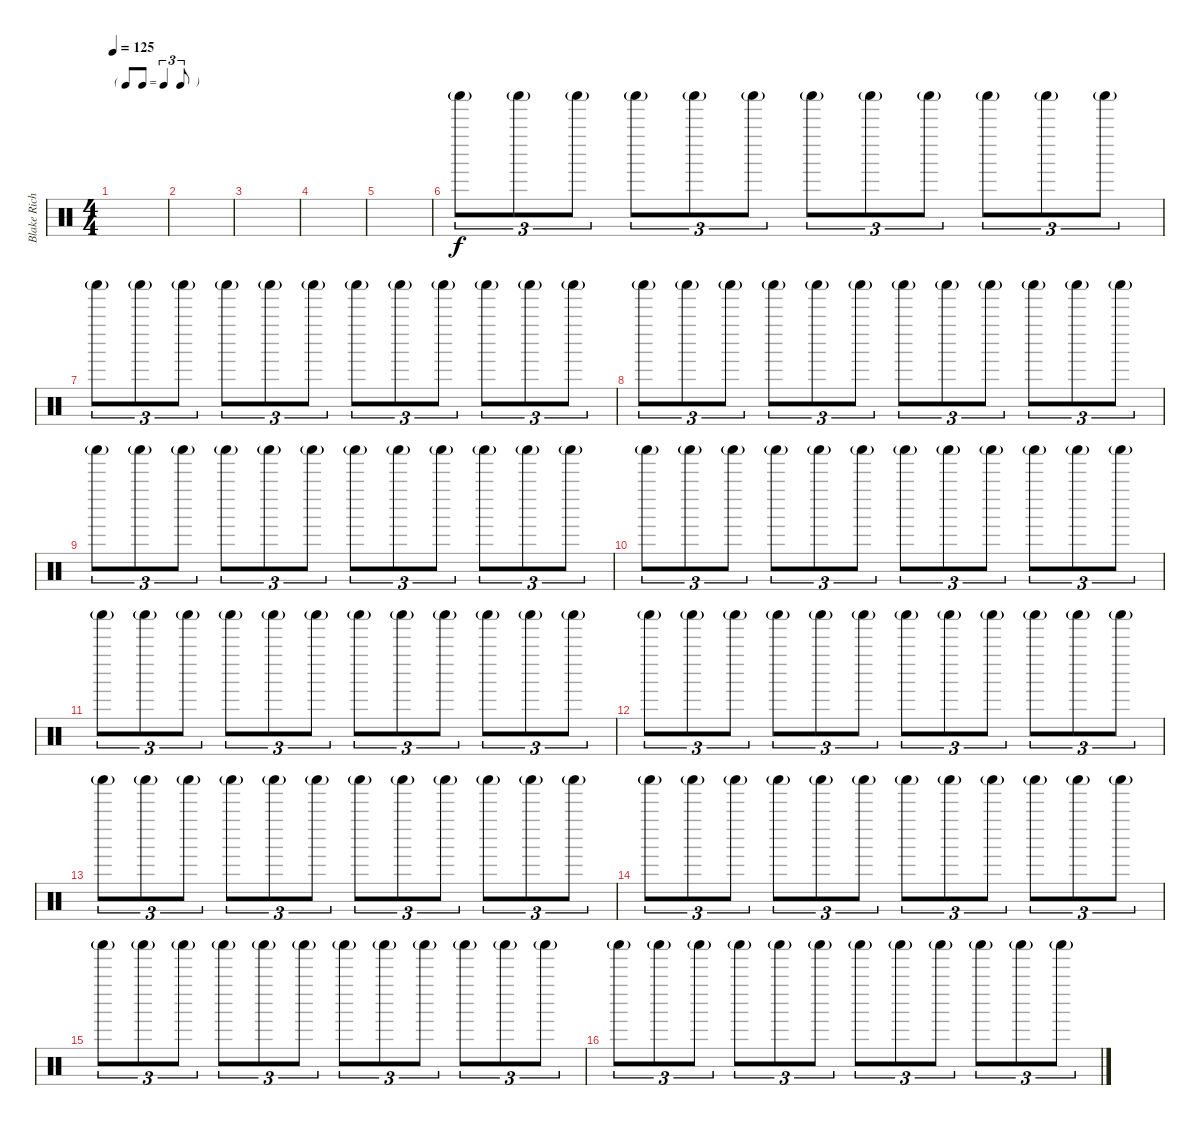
\track ("Blake Richardson - Shaker" "Blake Rich") {instrument percussion}
\staff {score}
\articulation defaults
\ts (4 4)
\tf triplet8th
\tempo 125
\clef neutral
\ks c
|
|
|
|
|
"Shaker (hit)"{g}.8{tu (3 2)} "Shaker (hit)"{g}.8{tu (3 2)} "Shaker (hit)"{g}.8{tu (3 2)} "Shaker (hit)"{g}.8{tu (3 2)} "Shaker (hit)"{g}.8{tu (3 2)} "Shaker (hit)"{g}.8{tu (3 2)} "Shaker (hit)"{g}.8{tu (3 2)} "Shaker (hit)"{g}.8{tu (3 2)} "Shaker (hit)"{g}.8{tu (3 2)} "Shaker (hit)"{g}.8{tu (3 2)} "Shaker (hit)"{g}.8{tu (3 2)} "Shaker (hit)"{g}.8{tu (3 2)} |
"Shaker (hit)"{g}.8{tu (3 2)} "Shaker (hit)"{g}.8{tu (3 2)} "Shaker (hit)"{g}.8{tu (3 2)} "Shaker (hit)"{g}.8{tu (3 2)} "Shaker (hit)"{g}.8{tu (3 2)} "Shaker (hit)"{g}.8{tu (3 2)} "Shaker (hit)"{g}.8{tu (3 2)} "Shaker (hit)"{g}.8{tu (3 2)} "Shaker (hit)"{g}.8{tu (3 2)} "Shaker (hit)"{g}.8{tu (3 2)} "Shaker (hit)"{g}.8{tu (3 2)} "Shaker (hit)"{g}.8{tu (3 2)} |
"Shaker (hit)"{g}.8{tu (3 2)} "Shaker (hit)"{g}.8{tu (3 2)} "Shaker (hit)"{g}.8{tu (3 2)} "Shaker (hit)"{g}.8{tu (3 2)} "Shaker (hit)"{g}.8{tu (3 2)} "Shaker (hit)"{g}.8{tu (3 2)} "Shaker (hit)"{g}.8{tu (3 2)} "Shaker (hit)"{g}.8{tu (3 2)} "Shaker (hit)"{g}.8{tu (3 2)} "Shaker (hit)"{g}.8{tu (3 2)} "Shaker (hit)"{g}.8{tu (3 2)} "Shaker (hit)"{g}.8{tu (3 2)} |
"Shaker (hit)"{g}.8{tu (3 2)} "Shaker (hit)"{g}.8{tu (3 2)} "Shaker (hit)"{g}.8{tu (3 2)} "Shaker (hit)"{g}.8{tu (3 2)} "Shaker (hit)"{g}.8{tu (3 2)} "Shaker (hit)"{g}.8{tu (3 2)} "Shaker (hit)"{g}.8{tu (3 2)} "Shaker (hit)"{g}.8{tu (3 2)} "Shaker (hit)"{g}.8{tu (3 2)} "Shaker (hit)"{g}.8{tu (3 2)} "Shaker (hit)"{g}.8{tu (3 2)} "Shaker (hit)"{g}.8{tu (3 2)} |
"Shaker (hit)"{g}.8{tu (3 2)} "Shaker (hit)"{g}.8{tu (3 2)} "Shaker (hit)"{g}.8{tu (3 2)} "Shaker (hit)"{g}.8{tu (3 2)} "Shaker (hit)"{g}.8{tu (3 2)} "Shaker (hit)"{g}.8{tu (3 2)} "Shaker (hit)"{g}.8{tu (3 2)} "Shaker (hit)"{g}.8{tu (3 2)} "Shaker (hit)"{g}.8{tu (3 2)} "Shaker (hit)"{g}.8{tu (3 2)} "Shaker (hit)"{g}.8{tu (3 2)} "Shaker (hit)"{g}.8{tu (3 2)} |
"Shaker (hit)"{g}.8{tu (3 2)} "Shaker (hit)"{g}.8{tu (3 2)} "Shaker (hit)"{g}.8{tu (3 2)} "Shaker (hit)"{g}.8{tu (3 2)} "Shaker (hit)"{g}.8{tu (3 2)} "Shaker (hit)"{g}.8{tu (3 2)} "Shaker (hit)"{g}.8{tu (3 2)} "Shaker (hit)"{g}.8{tu (3 2)} "Shaker (hit)"{g}.8{tu (3 2)} "Shaker (hit)"{g}.8{tu (3 2)} "Shaker (hit)"{g}.8{tu (3 2)} "Shaker (hit)"{g}.8{tu (3 2)} |
"Shaker (hit)"{g}.8{tu (3 2)} "Shaker (hit)"{g}.8{tu (3 2)} "Shaker (hit)"{g}.8{tu (3 2)} "Shaker (hit)"{g}.8{tu (3 2)} "Shaker (hit)"{g}.8{tu (3 2)} "Shaker (hit)"{g}.8{tu (3 2)} "Shaker (hit)"{g}.8{tu (3 2)} "Shaker (hit)"{g}.8{tu (3 2)} "Shaker (hit)"{g}.8{tu (3 2)} "Shaker (hit)"{g}.8{tu (3 2)} "Shaker (hit)"{g}.8{tu (3 2)} "Shaker (hit)"{g}.8{tu (3 2)} |
"Shaker (hit)"{g}.8{tu (3 2)} "Shaker (hit)"{g}.8{tu (3 2)} "Shaker (hit)"{g}.8{tu (3 2)} "Shaker (hit)"{g}.8{tu (3 2)} "Shaker (hit)"{g}.8{tu (3 2)} "Shaker (hit)"{g}.8{tu (3 2)} "Shaker (hit)"{g}.8{tu (3 2)} "Shaker (hit)"{g}.8{tu (3 2)} "Shaker (hit)"{g}.8{tu (3 2)} "Shaker (hit)"{g}.8{tu (3 2)} "Shaker (hit)"{g}.8{tu (3 2)} "Shaker (hit)"{g}.8{tu (3 2)} |
"Shaker (hit)"{g}.8{tu (3 2)} "Shaker (hit)"{g}.8{tu (3 2)} "Shaker (hit)"{g}.8{tu (3 2)} "Shaker (hit)"{g}.8{tu (3 2)} "Shaker (hit)"{g}.8{tu (3 2)} "Shaker (hit)"{g}.8{tu (3 2)} "Shaker (hit)"{g}.8{tu (3 2)} "Shaker (hit)"{g}.8{tu (3 2)} "Shaker (hit)"{g}.8{tu (3 2)} "Shaker (hit)"{g}.8{tu (3 2)} "Shaker (hit)"{g}.8{tu (3 2)} "Shaker (hit)"{g}.8{tu (3 2)} |
"Shaker (hit)"{g}.8{tu (3 2)} "Shaker (hit)"{g}.8{tu (3 2)} "Shaker (hit)"{g}.8{tu (3 2)} "Shaker (hit)"{g}.8{tu (3 2)} "Shaker (hit)"{g}.8{tu (3 2)} "Shaker (hit)"{g}.8{tu (3 2)} "Shaker (hit)"{g}.8{tu (3 2)} "Shaker (hit)"{g}.8{tu (3 2)} "Shaker (hit)"{g}.8{tu (3 2)} "Shaker (hit)"{g}.8{tu (3 2)} "Shaker (hit)"{g}.8{tu (3 2)} "Shaker (hit)"{g}.8{tu (3 2)} |
"Shaker (hit)"{g}.8{tu (3 2)} "Shaker (hit)"{g}.8{tu (3 2)} "Shaker (hit)"{g}.8{tu (3 2)} "Shaker (hit)"{g}.8{tu (3 2)} "Shaker (hit)"{g}.8{tu (3 2)} "Shaker (hit)"{g}.8{tu (3 2)} "Shaker (hit)"{g}.8{tu (3 2)} "Shaker (hit)"{g}.8{tu (3 2)} "Shaker (hit)"{g}.8{tu (3 2)} "Shaker (hit)"{g}.8{tu (3 2)} "Shaker (hit)"{g}.8{tu (3 2)} "Shaker (hit)"{g}.8{tu (3 2)}
